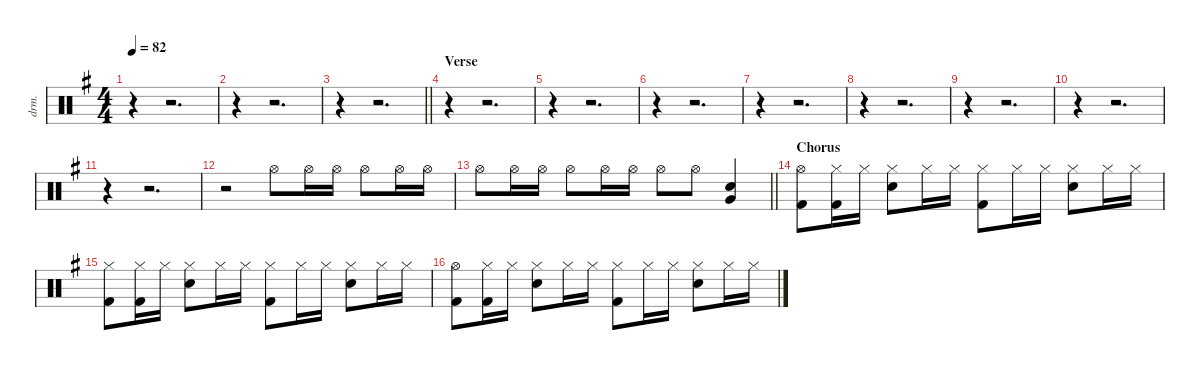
\defaultSystemsLayout 4
\hideDynamics
\bracketExtendMode nobrackets
\track ("Drums" "drm.") {instrument percussion}
\staff {score}
\articulation defaults
\ts (4 4)
\tempo 82
\clef neutral
\ks eminor
r.4{dy f beam Down} r.2{d beam Down} |
r.4{beam Down} r.2{d beam Down} |
\barLineRight lightlight
r.4{beam Down} r.2{d beam Down} |
\section ("" "Verse")
r.4{beam Down} r.2{d beam Down} |
r.4{beam Down} r.2{d beam Down} |
r.4{beam Down} r.2{d beam Down} |
r.4{beam Down} r.2{d beam Down} |
r.4{beam Down} r.2{d beam Down} |
r.4{beam Down} r.2{d beam Down} |
r.4{beam Down} r.2{d beam Down} |
r.4{beam Down} r.2{d beam Down} |
r.2{beam Down} "Hi-Hat (open)"{acc forcenatural}.8{beam Down} "Hi-Hat (open)"{acc forcenatural}.16{beam Down} "Hi-Hat (open)"{acc forcenatural}.16{beam Down} "Hi-Hat (open)"{acc forcenatural}.8{beam Down} "Hi-Hat (open)"{acc forcenatural}.16{beam Down} "Hi-Hat (open)"{acc forcenatural}.16{beam Down} |
\barLineRight lightlight "Hi-Hat (open)"{acc forcenatural}.8{beam Down} "Hi-Hat (open)"{acc forcenatural}.16{beam Down} "Hi-Hat (open)"{acc forcenatural}.16{beam Down} "Hi-Hat (open)"{acc forcenatural}.8{beam Down} "Hi-Hat (open)"{acc forcenatural}.16{beam Down} "Hi-Hat (open)"{acc forcenatural}.16{beam Down} "Hi-Hat (open)"{acc forcenatural}.8{beam Down} "Hi-Hat (open)"{acc forcenatural}.8{beam Down}
("Snare (hit) 2"{acc forcenatural} "Very Low Tom (hit)"{acc forcenatural}).4{beam Up} |
\section ("" "Chorus")
("Hi-Hat (open)"{acc forcenatural} "Kick (hit) 2"{acc forcenatural}).8 ("Hi-Hat (closed)"{acc forcenatural} "Kick (hit) 2"{acc forcenatural}).16 "Hi-Hat (closed)"{acc forcenatural}.16 ("Hi-Hat (closed)"{acc forcenatural} "Snare (hit) 2"{acc forcenatural}).8 "Hi-Hat (closed)"{acc forcenatural}.16 "Hi-Hat (closed)"{acc forcenatural}.16 ("Hi-Hat (closed)"{acc forcenatural} "Kick (hit) 2"{acc forcenatural}).8 "Hi-Hat (closed)"{acc forcenatural}.16 "Hi-Hat (closed)"{acc forcenatural}.16 ("Hi-Hat (closed)"{acc forcenatural} "Snare (hit) 2"{acc forcenatural}).8 "Hi-Hat (closed)"{acc forcenatural}.16 "Hi-Hat (closed)"{acc forcenatural}.16 |
("Hi-Hat (closed)"{acc forcenatural} "Kick (hit) 2"{acc forcenatural}).8 ("Hi-Hat (closed)"{acc forcenatural} "Kick (hit) 2"{acc forcenatural}).16 "Hi-Hat (closed)"{acc forcenatural}.16 ("Hi-Hat (closed)"{acc forcenatural} "Snare (hit) 2"{acc forcenatural}).8 "Hi-Hat (closed)"{acc forcenatural}.16 "Hi-Hat (closed)"{acc forcenatural}.16 ("Hi-Hat (closed)"{acc forcenatural} "Kick (hit) 2"{acc forcenatural}).8 "Hi-Hat (closed)"{acc forcenatural}.16 "Hi-Hat (closed)"{acc forcenatural}.16 ("Hi-Hat (closed)"{acc forcenatural} "Snare (hit) 2"{acc forcenatural}).8 "Hi-Hat (closed)"{acc forcenatural}.16 "Hi-Hat (closed)"{acc forcenatural}.16 |
("Hi-Hat (open)"{acc forcenatural} "Kick (hit) 2"{acc forcenatural}).8 ("Hi-Hat (closed)"{acc forcenatural} "Kick (hit) 2"{acc forcenatural}).16 "Hi-Hat (closed)"{acc forcenatural}.16 ("Hi-Hat (closed)"{acc forcenatural} "Snare (hit) 2"{acc forcenatural}).8 "Hi-Hat (closed)"{acc forcenatural}.16 "Hi-Hat (closed)"{acc forcenatural}.16 ("Hi-Hat (closed)"{acc forcenatural} "Kick (hit) 2"{acc forcenatural}).8 "Hi-Hat (closed)"{acc forcenatural}.16 "Hi-Hat (closed)"{acc forcenatural}.16 ("Hi-Hat (closed)"{acc forcenatural} "Snare (hit) 2"{acc forcenatural}).8 "Hi-Hat (closed)"{acc forcenatural}.16 "Hi-Hat (closed)"{acc forcenatural}.16
